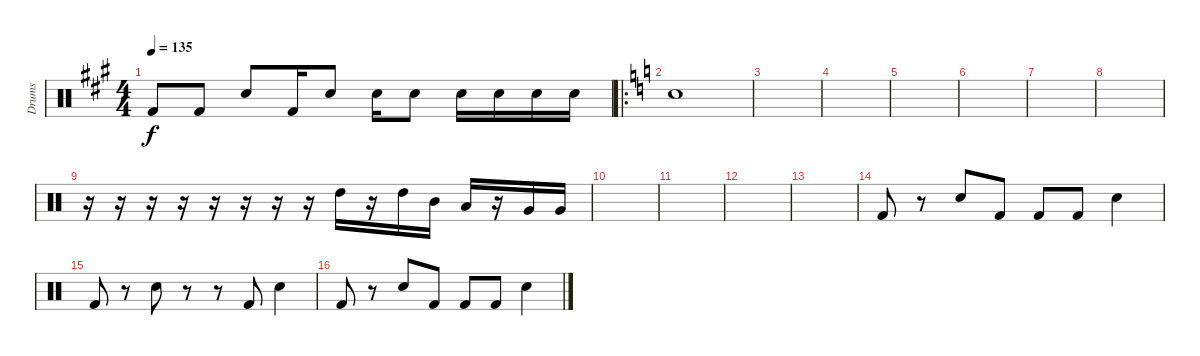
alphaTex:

\track ("Drums" "Drums") {instrument percussion}
\staff {score}
\articulation defaults
\ts (4 4)
\tempo 135
\clef neutral
\ks a "Kick (hit) 2".8{dy f} "Kick (hit) 2".8 "Snare (hit) 2".8 "Kick (hit) 2".16 "Snare (hit) 2".8 "Snare (hit) 2".16 "Snare (hit) 2".8 "Snare (hit) 2".16 "Snare (hit) 2".16 "Snare (hit) 2".16 "Snare (hit) 2".16
|
\ro
\ks c "Snare (hit) 2".1
|
|
|
|
|
|
|
r.16 r.16 r.16 r.16 r.16 r.16 r.16 r.16 "High Tom (hit)".16 r.16 "High Tom (hit)".16 "Mid Tom (hit)".16 "Low Tom (hit)".16 r.16 "Very Low Tom (hit)".16 "Very Low Tom (hit)".16 |
|
|
|
|
"Kick (hit) 2".8 r.8 "Snare (hit) 2".8 "Kick (hit) 2".8 "Kick (hit) 2".8 "Kick (hit) 2".8 "Snare (hit) 2".4 |
"Kick (hit) 2".8 r.8 "Snare (hit) 2".8 r.8 r.8 "Kick (hit) 2".8 "Snare (hit) 2".4 |
"Kick (hit) 2".8 r.8 "Snare (hit) 2".8 "Kick (hit) 2".8 "Kick (hit) 2".8 "Kick (hit) 2".8 "Snare (hit) 2".4
